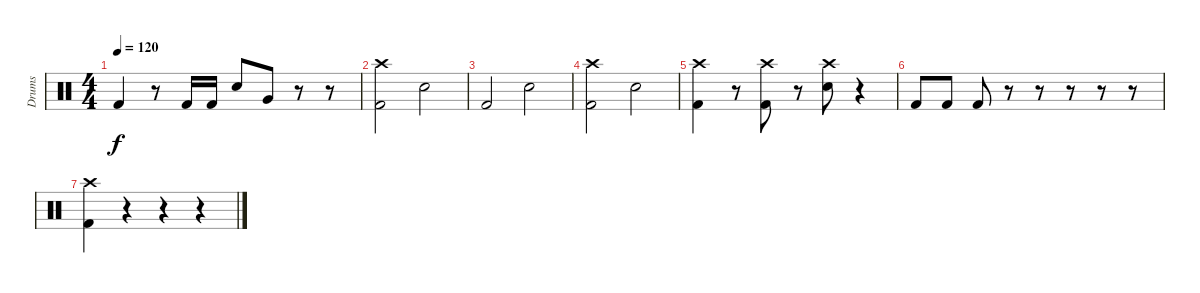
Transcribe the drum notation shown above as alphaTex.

\track ("Drums" "Drums") {instrument percussion}
\staff {score}
\articulation defaults
\ts (4 4)
\tempo 120
\clef neutral
\ks c "Kick (hit) 2".4{dy f}
r.8 "Kick (hit) 2".16 "Kick (hit) 2".16 "Electric Snare (hit)".8 "Very Low Tom (hit)".8 r.8 r.8 |
("Kick (hit) 2" "Crash high (hit)").2 "Electric Snare (hit)".2 |
"Kick (hit) 2".2 "Electric Snare (hit)".2 |
("Kick (hit) 2" "Crash high (hit)").2 "Electric Snare (hit)".2 |
("Kick (hit) 2" "Crash high (hit)").4 r.8 ("Kick (hit) 2" "Crash high (hit)").8 r.8 ("Electric Snare (hit)" "Crash high (hit)").8 r.4 |
"Kick (hit) 2".8 "Kick (hit) 2".8 "Kick (hit) 2".8 r.8 r.8 r.8 r.8 r.8 |
("Kick (hit) 2" "Crash high (hit)").4 r.4 r.4 r.4
